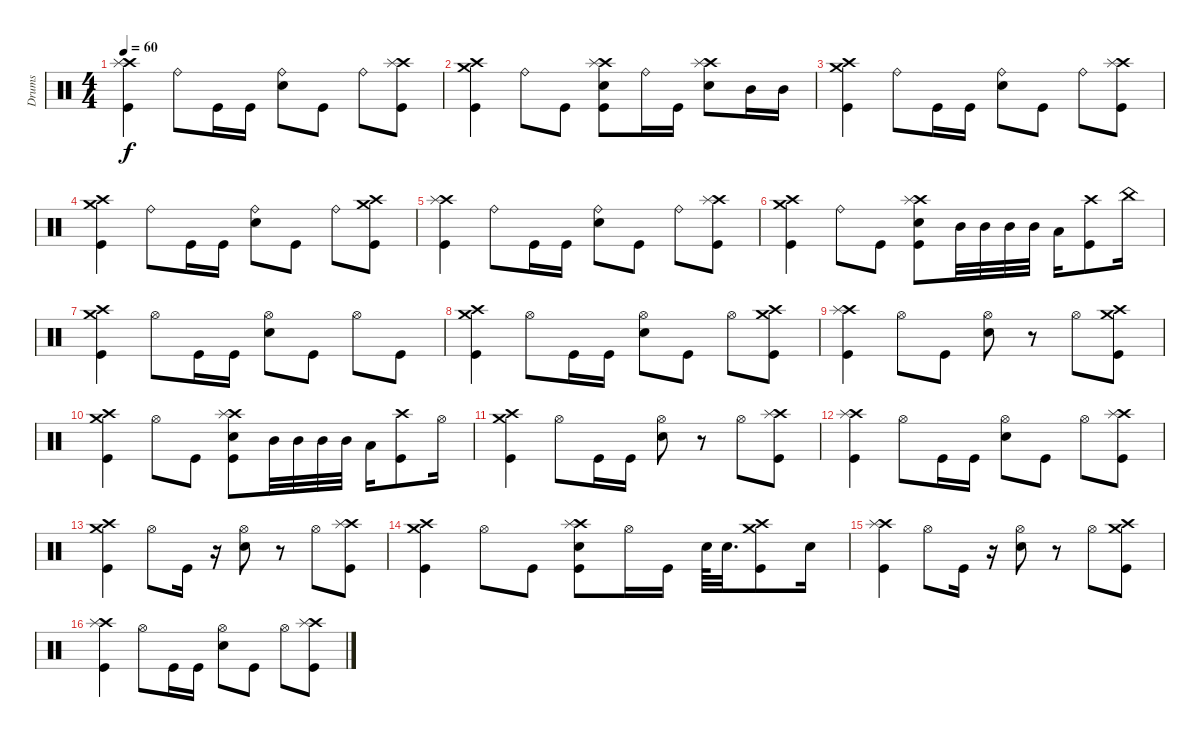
\track ("Drums" "Drums") {instrument percussion}
\staff {score}
\articulation defaults
\ts (4 4)
\tempo 60
\clef neutral
\ks c
("Crash high (hit)" "Splash (hit)" "Kick (hit)").4{dy f} "Ride (bell)".8 "Kick (hit)".16 "Kick (hit)".16 ("Ride (bell)" "Electric Snare (hit)").8 "Kick (hit)".8 "Ride (bell)".8 ("Crash high (hit)" "Splash (hit)" "Kick (hit)").8 |
("Crash high (hit)" "Crash medium (hit)" "Kick (hit)").4 "Ride (bell)".8 "Kick (hit)".8 ("Crash high (hit)" "Splash (hit)" "Electric Snare (hit)" "Kick (hit)").8 "Ride (bell)".16 "Kick (hit)".16 ("Crash high (hit)" "Splash (hit)" "Electric Snare (hit)").8 "Mid Tom (hit)".16 "Mid Tom (hit)".16 |
("Crash high (hit)" "Crash medium (hit)" "Kick (hit)").4 "Ride (bell)".8 "Kick (hit)".16 "Kick (hit)".16 ("Ride (bell)" "Electric Snare (hit)").8 "Kick (hit)".8 "Ride (bell)".8 ("Crash high (hit)" "Splash (hit)" "Kick (hit)").8 |
("Crash high (hit)" "Crash medium (hit)" "Kick (hit)").4 "Ride (bell)".8 "Kick (hit)".16 "Kick (hit)".16 ("Ride (bell)" "Electric Snare (hit)").8 "Kick (hit)".8 "Ride (bell)".8 ("Crash high (hit)" "Crash medium (hit)" "Kick (hit)").8 |
("Crash high (hit)" "Splash (hit)" "Kick (hit)").4 "Ride (bell)".8 "Kick (hit)".16 "Kick (hit)".16 ("Ride (bell)" "Electric Snare (hit)").8 "Kick (hit)".8 "Ride (bell)".8 ("Crash high (hit)" "Splash (hit)" "Kick (hit)").8 |
("Crash high (hit)" "Crash medium (hit)" "Kick (hit)").4 "Ride (bell)".8 "Kick (hit)".8 ("Crash high (hit)" "Splash (hit)" "Electric Snare (hit)" "Kick (hit)").8 "Mid Tom (hit)".32 "Mid Tom (hit)".32 "Mid Tom (hit)".32 "Mid Tom (hit)".32 "Low Tom (hit)".16 ("Crash high (hit)" "Kick (hit)").8 "China (hit)".16 |
("Crash high (hit)" "Crash medium (hit)" "Kick (hit)").4 "Hi-Hat (open)".8 "Kick (hit)".16 "Kick (hit)".16 ("Hi-Hat (open)" "Electric Snare (hit)").8 "Kick (hit)".8 "Hi-Hat (open)".8 "Kick (hit)".8 |
("Crash high (hit)" "Crash medium (hit)" "Kick (hit)").4 "Hi-Hat (open)".8 "Kick (hit)".16 "Kick (hit)".16 ("Hi-Hat (open)" "Electric Snare (hit)").8 "Kick (hit)".8 "Hi-Hat (open)".8 ("Crash high (hit)" "Crash medium (hit)" "Kick (hit)").8 |
("Crash high (hit)" "Splash (hit)" "Kick (hit)").4 "Hi-Hat (open)".8 "Kick (hit)".8 ("Hi-Hat (open)" "Electric Snare (hit)").8 r.8 "Hi-Hat (open)".8 ("Crash high (hit)" "Crash medium (hit)" "Kick (hit)").8 |
("Crash high (hit)" "Crash medium (hit)" "Kick (hit)").4 "Hi-Hat (open)".8 "Kick (hit)".8 ("Crash high (hit)" "Splash (hit)" "Electric Snare (hit)" "Kick (hit)").8 "Mid Tom (hit)".32 "Mid Tom (hit)".32 "Mid Tom (hit)".32 "Mid Tom (hit)".32 "Low Tom (hit)".16 ("Crash high (hit)" "Kick (hit)").8 "Hi-Hat (open)".16 |
("Crash high (hit)" "Crash medium (hit)" "Kick (hit)").4 "Hi-Hat (open)".8 "Kick (hit)".16 "Kick (hit)".16 ("Hi-Hat (open)" "Electric Snare (hit)").8 r.8 "Hi-Hat (open)".8 ("Crash high (hit)" "Splash (hit)" "Kick (hit)").8 |
("Crash high (hit)" "Splash (hit)" "Kick (hit)").4 "Hi-Hat (open)".8 "Kick (hit)".16 "Kick (hit)".16 ("Hi-Hat (open)" "Electric Snare (hit)").8 "Kick (hit)".8 "Hi-Hat (open)".8 ("Crash high (hit)" "Splash (hit)" "Kick (hit)").8 |
("Crash high (hit)" "Crash medium (hit)" "Kick (hit)").4 "Hi-Hat (open)".8 "Kick (hit)".16 r.16 ("Hi-Hat (open)" "Electric Snare (hit)").8 r.8 "Hi-Hat (open)".8 ("Crash high (hit)" "Splash (hit)" "Kick (hit)").8 |
("Crash high (hit)" "Crash medium (hit)" "Kick (hit)").4 "Hi-Hat (open)".8 "Kick (hit)".8 ("Crash high (hit)" "Splash (hit)" "Electric Snare (hit)" "Kick (hit)").8 "Hi-Hat (open)".16 "Kick (hit)".16 "Electric Snare (hit)".64 "Electric Snare (hit)".32{d} ("Crash high (hit)" "Crash medium (hit)" "Kick (hit)").8 "Electric Snare (hit)".16 |
("Crash high (hit)" "Splash (hit)" "Kick (hit)").4 "Hi-Hat (open)".8 "Kick (hit)".16 r.16 ("Hi-Hat (open)" "Electric Snare (hit)").8 r.8 "Hi-Hat (open)".8 ("Crash high (hit)" "Crash medium (hit)" "Kick (hit)").8 |
("Crash high (hit)" "Splash (hit)" "Kick (hit)").4 "Hi-Hat (open)".8 "Kick (hit)".16 "Kick (hit)".16 ("Hi-Hat (open)" "Electric Snare (hit)").8 "Kick (hit)".8 "Hi-Hat (open)".8 ("Crash high (hit)" "Splash (hit)" "Kick (hit)").8
